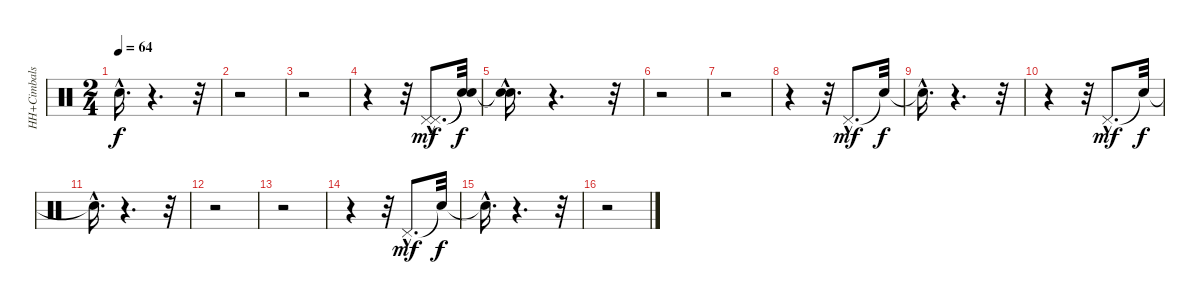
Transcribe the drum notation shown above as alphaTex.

\track ("HH+Cimbals" "HH+Cimbals") {instrument percussion}
\staff {score}
\articulation defaults
\ts (2 4)
\tempo 64
\clef neutral
\ks c "Snare (hit)"{hac t}.16{d dy f}
r.4{d} r.32 |
r.2 |
r.2 |
r.4 r.32 ("Pedal Hi-Hat (hit)"{hac} "Pedal Hi-Hat (hit)"{hac}).8{d dy mf} ("Snare (hit)"{t} "Snare (hit)"{t}).32{dy f} |
("Snare (hit)"{hac t} "Snare (hit)"{hac t}).16{d} r.4{d} r.32 |
r.2 |
r.2 |
r.4 r.32 "Pedal Hi-Hat (hit)"{hac}.8{d dy mf} "Snare (hit)"{t}.32{dy f} |
"Snare (hit)"{hac t}.16{d} r.4{d} r.32 |
r.4 r.32 "Pedal Hi-Hat (hit)"{hac}.8{d dy mf} "Snare (hit)"{t}.32{dy f} |
"Snare (hit)"{hac t}.16{d} r.4{d} r.32 |
r.2 |
r.2 |
r.4 r.32 "Pedal Hi-Hat (hit)"{hac}.8{d dy mf} "Snare (hit)"{t}.32{dy f} |
"Snare (hit)"{hac t}.16{d} r.4{d} r.32 |
r.2
